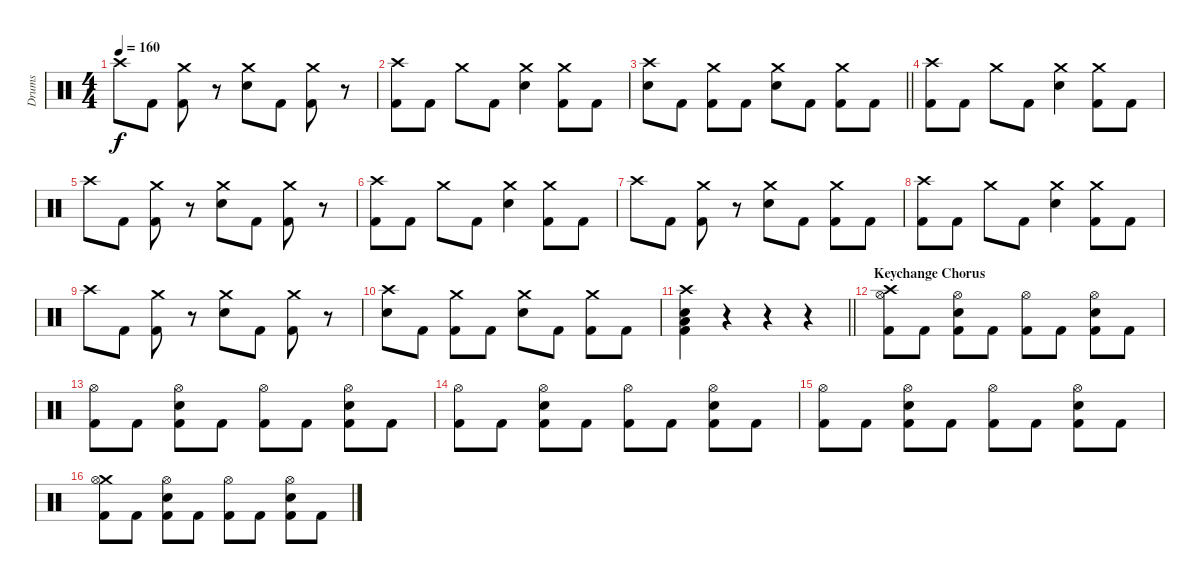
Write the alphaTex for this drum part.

\track ("Drums" "Drums") {instrument percussion}
\staff {score}
\articulation defaults
\ts (4 4)
\tempo 160
\clef neutral
\ks c "Crash high (hit)".8{dy f} "Kick (hit) 2".8
("Crash medium (hit)" "Kick (hit) 2").8 r.8 ("Crash medium (hit)" "Snare (hit) 2").8 "Kick (hit) 2".8 ("Crash medium (hit)" "Kick (hit) 2").8 r.8 |
("Crash high (hit)" "Kick (hit) 2").8 "Kick (hit) 2".8 "Crash medium (hit)".8 "Kick (hit) 2".8 ("Crash medium (hit)" "Snare (hit) 2").4 ("Crash medium (hit)" "Kick (hit) 2").8 "Kick (hit) 2".8 |
\barLineRight lightlight
("Crash high (hit)" "Snare (hit) 2").8 "Kick (hit) 2".8 ("Crash medium (hit)" "Kick (hit) 2").8 "Kick (hit) 2".8 ("Crash medium (hit)" "Snare (hit) 2").8 "Kick (hit) 2".8 ("Crash medium (hit)" "Kick (hit) 2").8 "Kick (hit) 2".8 |
("Crash high (hit)" "Kick (hit) 2").8 "Kick (hit) 2".8 "Crash medium (hit)".8 "Kick (hit) 2".8 ("Crash medium (hit)" "Snare (hit) 2").4 ("Crash medium (hit)" "Kick (hit) 2").8 "Kick (hit) 2".8 |
"Crash high (hit)".8 "Kick (hit) 2".8 ("Crash medium (hit)" "Kick (hit) 2").8 r.8 ("Crash medium (hit)" "Snare (hit) 2").8 "Kick (hit) 2".8 ("Crash medium (hit)" "Kick (hit) 2").8 r.8 |
("Crash high (hit)" "Kick (hit) 2").8 "Kick (hit) 2".8 "Crash medium (hit)".8 "Kick (hit) 2".8 ("Crash medium (hit)" "Snare (hit) 2").4 ("Crash medium (hit)" "Kick (hit) 2").8 "Kick (hit) 2".8 |
"Crash high (hit)".8 "Kick (hit) 2".8 ("Crash medium (hit)" "Kick (hit) 2").8 r.8 ("Crash medium (hit)" "Snare (hit) 2").8 "Kick (hit) 2".8 ("Crash medium (hit)" "Kick (hit) 2").8 "Kick (hit) 2".8 |
("Crash high (hit)" "Kick (hit) 2").8 "Kick (hit) 2".8 "Crash medium (hit)".8 "Kick (hit) 2".8 ("Crash medium (hit)" "Snare (hit) 2").4 ("Crash medium (hit)" "Kick (hit) 2").8 "Kick (hit) 2".8 |
"Crash high (hit)".8 "Kick (hit) 2".8 ("Crash medium (hit)" "Kick (hit) 2").8 r.8 ("Crash medium (hit)" "Snare (hit) 2").8 "Kick (hit) 2".8 ("Crash medium (hit)" "Kick (hit) 2").8 r.8 |
("Crash high (hit)" "Snare (hit) 2").8 "Kick (hit) 2".8 ("Crash medium (hit)" "Kick (hit) 2").8 "Kick (hit) 2".8 ("Crash medium (hit)" "Snare (hit) 2").8 "Kick (hit) 2".8 ("Crash medium (hit)" "Kick (hit) 2").8 "Kick (hit) 2".8 |
\barLineRight lightlight
("Crash high (hit)" "Low Floor Tom (hit)" "Snare (hit) 2" "Kick (hit) 2").4 r.4 r.4 r.4 |
\section ("" "Keychange Chorus")
("Crash high (hit)" "Hi-Hat (open)" "Kick (hit) 2").8 "Kick (hit) 2".8 ("Hi-Hat (open)" "Snare (hit) 2" "Kick (hit) 2").8 "Kick (hit) 2".8 ("Hi-Hat (open)" "Kick (hit) 2").8 "Kick (hit) 2".8 ("Hi-Hat (open)" "Snare (hit) 2" "Kick (hit) 2").8 "Kick (hit) 2".8 |
("Hi-Hat (open)" "Kick (hit) 2").8 "Kick (hit) 2".8 ("Hi-Hat (open)" "Snare (hit) 2" "Kick (hit) 2").8 "Kick (hit) 2".8 ("Hi-Hat (open)" "Kick (hit) 2").8 "Kick (hit) 2".8 ("Hi-Hat (open)" "Snare (hit) 2" "Kick (hit) 2").8 "Kick (hit) 2".8 |
("Hi-Hat (open)" "Kick (hit) 2").8 "Kick (hit) 2".8 ("Hi-Hat (open)" "Snare (hit) 2" "Kick (hit) 2").8 "Kick (hit) 2".8 ("Hi-Hat (open)" "Kick (hit) 2").8 "Kick (hit) 2".8 ("Hi-Hat (open)" "Snare (hit) 2" "Kick (hit) 2").8 "Kick (hit) 2".8 |
("Hi-Hat (open)" "Kick (hit) 2").8 "Kick (hit) 2".8 ("Hi-Hat (open)" "Snare (hit) 2" "Kick (hit) 2").8 "Kick (hit) 2".8 ("Hi-Hat (open)" "Kick (hit) 2").8 "Kick (hit) 2".8 ("Hi-Hat (open)" "Snare (hit) 2" "Kick (hit) 2").8 "Kick (hit) 2".8 |
("Crash medium (hit)" "Hi-Hat (open)" "Kick (hit) 2").8 "Kick (hit) 2".8 ("Hi-Hat (open)" "Snare (hit) 2" "Kick (hit) 2").8 "Kick (hit) 2".8 ("Hi-Hat (open)" "Kick (hit) 2").8 "Kick (hit) 2".8 ("Hi-Hat (open)" "Snare (hit) 2" "Kick (hit) 2").8 "Kick (hit) 2".8
